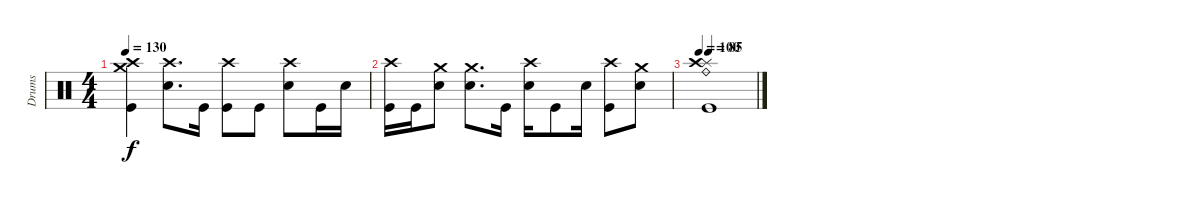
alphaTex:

\track ("Drums" "Drums") {instrument percussion}
\staff {score}
\articulation defaults
\ts (4 4)
\tempo 130
\clef neutral
\ks c
("Crash high (hit)" "Crash medium (hit)" "Kick (hit)").4{dy f} ("Crash high (hit)" "Snare (hit) 2").8{d} "Kick (hit)".16 ("Crash high (hit)" "Kick (hit)").8 "Kick (hit)".8 ("Crash high (hit)" "Snare (hit) 2").8 "Kick (hit)".16 "Snare (hit) 2".16 |
("Crash high (hit)" "Kick (hit)").16 "Kick (hit)".16 ("Crash medium (hit)" "Snare (hit) 2").8 ("Crash medium (hit)" "Snare (hit) 2").8{d} "Kick (hit)".16 ("Crash high (hit)" "Snare (hit) 2").16 "Kick (hit)".8 "Snare (hit) 2".16 ("Crash high (hit)" "Kick (hit)").8 ("Crash medium (hit)" "Snare (hit) 2").8 |
\tempo 100
\tempo (85 0.16666666666666666)
("Splash (hit)" "Ride (bell)" "Crash high (hit)" "Kick (hit)").1
